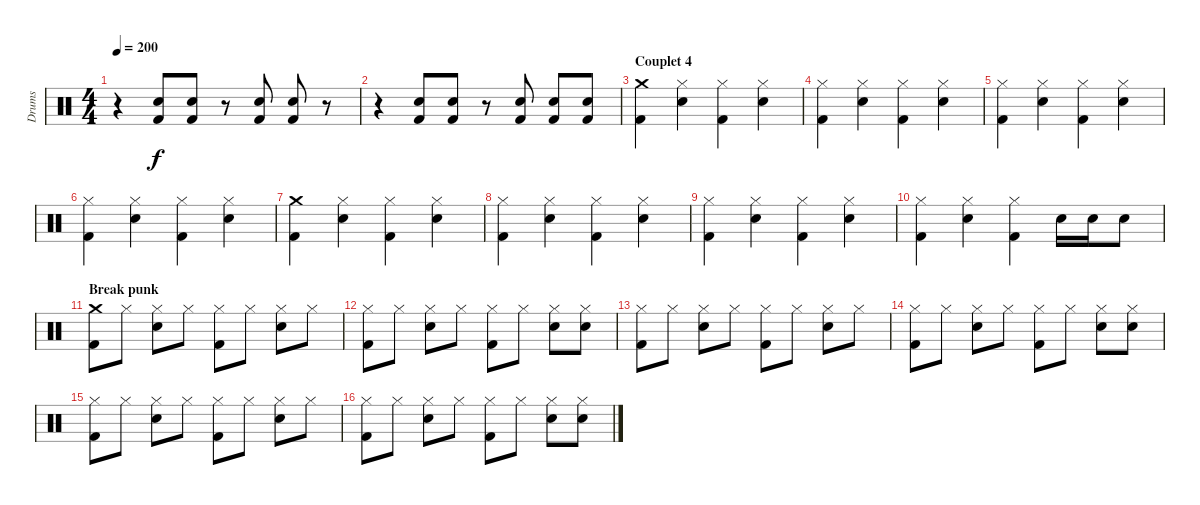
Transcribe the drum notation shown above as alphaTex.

\track ("Drums" "Drums") {instrument percussion}
\staff {score}
\articulation defaults
\ts (4 4)
\tempo 200
\clef neutral
\ks c
r.4{dy f} ("Snare (hit) 2" "Kick (hit) 2").8 ("Snare (hit) 2" "Kick (hit) 2").8 r.8 ("Snare (hit) 2" "Kick (hit) 2").8 ("Snare (hit) 2" "Kick (hit) 2").8 r.8 |
r.4 ("Snare (hit) 2" "Kick (hit) 2").8 ("Snare (hit) 2" "Kick (hit) 2").8 r.8 ("Snare (hit) 2" "Kick (hit) 2").8 ("Snare (hit) 2" "Kick (hit) 2").8 ("Snare (hit) 2" "Kick (hit) 2").8 |
\section ("" "Couplet 4")
("Crash medium (hit)" "Kick (hit) 2").4 ("Hi-Hat (closed)" "Snare (hit) 2").4 ("Hi-Hat (closed)" "Kick (hit) 2").4 ("Hi-Hat (closed)" "Snare (hit) 2").4 |
("Hi-Hat (closed)" "Kick (hit) 2").4 ("Hi-Hat (closed)" "Snare (hit) 2").4 ("Hi-Hat (closed)" "Kick (hit) 2").4 ("Hi-Hat (closed)" "Snare (hit) 2").4 |
("Hi-Hat (closed)" "Kick (hit) 2").4 ("Hi-Hat (closed)" "Snare (hit) 2").4 ("Hi-Hat (closed)" "Kick (hit) 2").4 ("Hi-Hat (closed)" "Snare (hit) 2").4 |
("Hi-Hat (closed)" "Kick (hit) 2").4 ("Hi-Hat (closed)" "Snare (hit) 2").4 ("Hi-Hat (closed)" "Kick (hit) 2").4 ("Hi-Hat (closed)" "Snare (hit) 2").4 |
("Crash medium (hit)" "Kick (hit) 2").4 ("Hi-Hat (closed)" "Snare (hit) 2").4 ("Hi-Hat (closed)" "Kick (hit) 2").4 ("Hi-Hat (closed)" "Snare (hit) 2").4 |
("Hi-Hat (closed)" "Kick (hit) 2").4 ("Hi-Hat (closed)" "Snare (hit) 2").4 ("Hi-Hat (closed)" "Kick (hit) 2").4 ("Hi-Hat (closed)" "Snare (hit) 2").4 |
("Hi-Hat (closed)" "Kick (hit) 2").4 ("Hi-Hat (closed)" "Snare (hit) 2").4 ("Hi-Hat (closed)" "Kick (hit) 2").4 ("Hi-Hat (closed)" "Snare (hit) 2").4 |
("Hi-Hat (closed)" "Kick (hit) 2").4 ("Hi-Hat (closed)" "Snare (hit) 2").4 ("Hi-Hat (closed)" "Kick (hit) 2").4 "Snare (hit) 2".16 "Snare (hit) 2".16 "Snare (hit) 2".8 |
\section ("" "Break punk")
("Crash medium (hit)" "Kick (hit) 2").8 "Hi-Hat (closed)".8 ("Hi-Hat (closed)" "Snare (hit) 2").8 "Hi-Hat (closed)".8 ("Hi-Hat (closed)" "Kick (hit) 2").8 "Hi-Hat (closed)".8 ("Hi-Hat (closed)" "Snare (hit) 2").8 "Hi-Hat (closed)".8 |
("Hi-Hat (closed)" "Kick (hit) 2").8 "Hi-Hat (closed)".8 ("Hi-Hat (closed)" "Snare (hit) 2").8 "Hi-Hat (closed)".8 ("Hi-Hat (closed)" "Kick (hit) 2").8 "Hi-Hat (closed)".8 ("Hi-Hat (closed)" "Snare (hit) 2").8 ("Hi-Hat (closed)" "Snare (hit) 2").8 |
("Hi-Hat (closed)" "Kick (hit) 2").8 "Hi-Hat (closed)".8 ("Hi-Hat (closed)" "Snare (hit) 2").8 "Hi-Hat (closed)".8 ("Hi-Hat (closed)" "Kick (hit) 2").8 "Hi-Hat (closed)".8 ("Hi-Hat (closed)" "Snare (hit) 2").8 "Hi-Hat (closed)".8 |
("Hi-Hat (closed)" "Kick (hit) 2").8 "Hi-Hat (closed)".8 ("Hi-Hat (closed)" "Snare (hit) 2").8 "Hi-Hat (closed)".8 ("Hi-Hat (closed)" "Kick (hit) 2").8 "Hi-Hat (closed)".8 ("Hi-Hat (closed)" "Snare (hit) 2").8 ("Hi-Hat (closed)" "Snare (hit) 2").8 |
("Hi-Hat (closed)" "Kick (hit) 2").8 "Hi-Hat (closed)".8 ("Hi-Hat (closed)" "Snare (hit) 2").8 "Hi-Hat (closed)".8 ("Hi-Hat (closed)" "Kick (hit) 2").8 "Hi-Hat (closed)".8 ("Hi-Hat (closed)" "Snare (hit) 2").8 "Hi-Hat (closed)".8 |
("Hi-Hat (closed)" "Kick (hit) 2").8 "Hi-Hat (closed)".8 ("Hi-Hat (closed)" "Snare (hit) 2").8 "Hi-Hat (closed)".8 ("Hi-Hat (closed)" "Kick (hit) 2").8 "Hi-Hat (closed)".8 ("Hi-Hat (closed)" "Snare (hit) 2").8 ("Hi-Hat (closed)" "Snare (hit) 2").8
